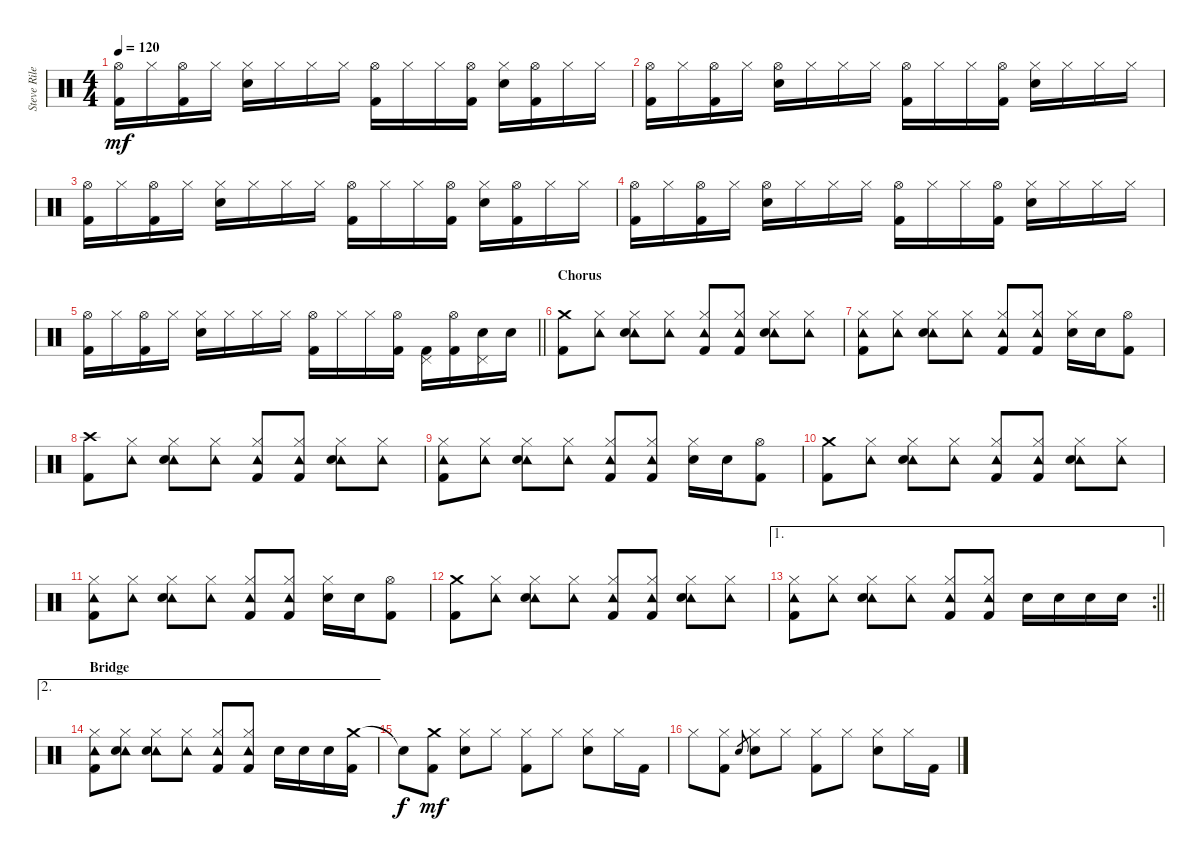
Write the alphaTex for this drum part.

\track ("Steve Riley" "Steve Rile") {instrument percussion}
\staff {score}
\articulation defaults
\ts (4 4)
\tempo 120
\clef neutral
\ks c
("Hi-Hat (open)" "Kick (hit) 2").16{dy mf} "Hi-Hat (closed)".16 ("Hi-Hat (open)" "Kick (hit) 2").16 "Hi-Hat (closed)".16 ("Hi-Hat (closed)" "Snare (hit) 2").16 "Hi-Hat (closed)".16 "Hi-Hat (closed)".16 "Hi-Hat (closed)".16 ("Hi-Hat (open)" "Kick (hit) 2").16 "Hi-Hat (closed)".16 "Hi-Hat (closed)".16 ("Hi-Hat (open)" "Kick (hit) 2").16 ("Hi-Hat (closed)" "Snare (hit) 2").16 ("Hi-Hat (open)" "Kick (hit) 2").16 "Hi-Hat (closed)".16 "Hi-Hat (closed)".16 |
("Hi-Hat (open)" "Kick (hit) 2").16 "Hi-Hat (closed)".16 ("Hi-Hat (open)" "Kick (hit) 2").16 "Hi-Hat (closed)".16 ("Hi-Hat (open)" "Snare (hit) 2").16 "Hi-Hat (closed)".16 "Hi-Hat (closed)".16 "Hi-Hat (closed)".16 ("Hi-Hat (open)" "Kick (hit) 2").16 "Hi-Hat (closed)".16 "Hi-Hat (closed)".16 ("Hi-Hat (open)" "Kick (hit) 2").16 ("Hi-Hat (closed)" "Snare (hit) 2").16 "Hi-Hat (closed)".16 "Hi-Hat (closed)".16 "Hi-Hat (closed)".16 |
("Hi-Hat (open)" "Kick (hit) 2").16 "Hi-Hat (closed)".16 ("Hi-Hat (open)" "Kick (hit) 2").16 "Hi-Hat (closed)".16 ("Hi-Hat (closed)" "Snare (hit) 2").16 "Hi-Hat (closed)".16 "Hi-Hat (closed)".16 "Hi-Hat (closed)".16 ("Hi-Hat (open)" "Kick (hit) 2").16 "Hi-Hat (closed)".16 "Hi-Hat (closed)".16 ("Hi-Hat (open)" "Kick (hit) 2").16 ("Hi-Hat (closed)" "Snare (hit) 2").16 ("Hi-Hat (open)" "Kick (hit) 2").16 "Hi-Hat (closed)".16 "Hi-Hat (closed)".16 |
("Hi-Hat (open)" "Kick (hit) 2").16 "Hi-Hat (closed)".16 ("Hi-Hat (open)" "Kick (hit) 2").16 "Hi-Hat (closed)".16 ("Hi-Hat (open)" "Snare (hit) 2").16 "Hi-Hat (closed)".16 "Hi-Hat (closed)".16 "Hi-Hat (closed)".16 ("Hi-Hat (open)" "Kick (hit) 2").16 "Hi-Hat (closed)".16 "Hi-Hat (closed)".16 ("Hi-Hat (open)" "Kick (hit) 2").16 ("Hi-Hat (closed)" "Snare (hit) 2").16 "Hi-Hat (closed)".16 "Hi-Hat (closed)".16 "Hi-Hat (closed)".16 |
\barLineRight lightlight
("Hi-Hat (open)" "Kick (hit) 2").16 "Hi-Hat (closed)".16 ("Hi-Hat (open)" "Kick (hit) 2").16 "Hi-Hat (closed)".16 ("Hi-Hat (closed)" "Snare (hit) 2").16 "Hi-Hat (closed)".16 "Hi-Hat (closed)".16 "Hi-Hat (closed)".16 ("Hi-Hat (open)" "Kick (hit) 2").16 "Hi-Hat (closed)".16 "Hi-Hat (closed)".16 ("Hi-Hat (open)" "Kick (hit) 2").16 ("Pedal Hi-Hat (hit)" "Kick (hit) 2").16 ("Hi-Hat (open)" "Kick (hit) 2").16 ("Pedal Hi-Hat (hit)" "Snare (hit) 2").16 "Snare (hit) 2".16 |
\section ("" "Chorus")
("Crash medium (hit)" "Kick (hit) 2").8 ("Tambourine (hit)" "Hi-Hat (closed)").8 ("Tambourine (hit)" "Hi-Hat (closed)" "Snare (hit) 2").8 ("Tambourine (hit)" "Hi-Hat (closed)").8 ("Tambourine (hit)" "Hi-Hat (closed)" "Kick (hit) 2").8 ("Tambourine (hit)" "Hi-Hat (closed)" "Kick (hit) 2").8 ("Tambourine (hit)" "Hi-Hat (closed)" "Snare (hit) 2").8 ("Tambourine (hit)" "Hi-Hat (closed)").8 |
("Tambourine (hit)" "Hi-Hat (closed)" "Kick (hit) 2").8 ("Tambourine (hit)" "Hi-Hat (closed)").8 ("Tambourine (hit)" "Hi-Hat (closed)" "Snare (hit) 2").8 ("Tambourine (hit)" "Hi-Hat (closed)").8 ("Tambourine (hit)" "Hi-Hat (closed)" "Kick (hit) 2").8 ("Tambourine (hit)" "Hi-Hat (closed)" "Kick (hit) 2").8 ("Hi-Hat (closed)" "Snare (hit) 2").16 "Snare (hit) 2".16 ("Hi-Hat (open)" "Kick (hit) 2").8 |
("Crash high (hit)" "Kick (hit) 2").8 ("Tambourine (hit)" "Hi-Hat (closed)").8 ("Tambourine (hit)" "Hi-Hat (closed)" "Snare (hit) 2").8 ("Tambourine (hit)" "Hi-Hat (closed)").8 ("Tambourine (hit)" "Hi-Hat (closed)" "Kick (hit) 2").8 ("Tambourine (hit)" "Hi-Hat (closed)" "Kick (hit) 2").8 ("Tambourine (hit)" "Hi-Hat (closed)" "Snare (hit) 2").8 ("Tambourine (hit)" "Hi-Hat (closed)").8 |
("Tambourine (hit)" "Hi-Hat (closed)" "Kick (hit) 2").8 ("Tambourine (hit)" "Hi-Hat (closed)").8 ("Tambourine (hit)" "Hi-Hat (closed)" "Snare (hit) 2").8 ("Tambourine (hit)" "Hi-Hat (closed)").8 ("Tambourine (hit)" "Hi-Hat (closed)" "Kick (hit) 2").8 ("Tambourine (hit)" "Hi-Hat (closed)" "Kick (hit) 2").8 ("Hi-Hat (closed)" "Snare (hit) 2").16 "Snare (hit) 2".16 ("Hi-Hat (open)" "Kick (hit) 2").8 |
("Crash medium (hit)" "Kick (hit) 2").8 ("Tambourine (hit)" "Hi-Hat (closed)").8 ("Tambourine (hit)" "Hi-Hat (closed)" "Snare (hit) 2").8 ("Tambourine (hit)" "Hi-Hat (closed)").8 ("Tambourine (hit)" "Hi-Hat (closed)" "Kick (hit) 2").8 ("Tambourine (hit)" "Hi-Hat (closed)" "Kick (hit) 2").8 ("Tambourine (hit)" "Hi-Hat (closed)" "Snare (hit) 2").8 ("Tambourine (hit)" "Hi-Hat (closed)").8 |
("Tambourine (hit)" "Hi-Hat (closed)" "Kick (hit) 2").8 ("Tambourine (hit)" "Hi-Hat (closed)").8 ("Tambourine (hit)" "Hi-Hat (closed)" "Snare (hit) 2").8 ("Tambourine (hit)" "Hi-Hat (closed)").8 ("Tambourine (hit)" "Hi-Hat (closed)" "Kick (hit) 2").8 ("Tambourine (hit)" "Hi-Hat (closed)" "Kick (hit) 2").8 ("Hi-Hat (closed)" "Snare (hit) 2").16 "Snare (hit) 2".16 ("Hi-Hat (open)" "Kick (hit) 2").8 |
("Crash medium (hit)" "Kick (hit) 2").8 ("Tambourine (hit)" "Hi-Hat (closed)").8 ("Tambourine (hit)" "Hi-Hat (closed)" "Snare (hit) 2").8 ("Tambourine (hit)" "Hi-Hat (closed)").8 ("Tambourine (hit)" "Hi-Hat (closed)" "Kick (hit) 2").8 ("Tambourine (hit)" "Hi-Hat (closed)" "Kick (hit) 2").8 ("Tambourine (hit)" "Hi-Hat (closed)" "Snare (hit) 2").8 ("Tambourine (hit)" "Hi-Hat (closed)").8 |
\ae 1
\rc 2
\barLineRight lightlight
("Tambourine (hit)" "Hi-Hat (closed)" "Kick (hit) 2").8 ("Tambourine (hit)" "Hi-Hat (closed)").8 ("Tambourine (hit)" "Hi-Hat (closed)" "Snare (hit) 2").8 ("Tambourine (hit)" "Hi-Hat (closed)").8 ("Tambourine (hit)" "Hi-Hat (closed)" "Kick (hit) 2").8 ("Tambourine (hit)" "Hi-Hat (closed)" "Kick (hit) 2").8 "Snare (hit) 2".16 "Snare (hit) 2".16 "Snare (hit) 2".16 "Snare (hit) 2".16 |
\ae 2
\section ("" "Bridge")
("Tambourine (hit)" "Hi-Hat (closed)" "Kick (hit) 2").8 ("Tambourine (hit)" "Hi-Hat (closed)" "Snare (hit) 2").8 ("Tambourine (hit)" "Hi-Hat (closed)" "Snare (hit) 2").8 ("Tambourine (hit)" "Hi-Hat (closed)").8 ("Tambourine (hit)" "Hi-Hat (closed)" "Kick (hit) 2").8 ("Tambourine (hit)" "Hi-Hat (closed)" "Kick (hit) 2").8 "Snare (hit) 2".16 "Snare (hit) 2".16 "Snare (hit) 2".16 ("Crash medium (hit)" "Kick (hit) 2").16 |
"Snare (hit)"{t}.8{dy f} ("Crash medium (hit)" "Kick (hit) 2").8{dy mf} ("Hi-Hat (closed)" "Snare (hit) 2").8 "Hi-Hat (closed)".8 ("Hi-Hat (closed)" "Kick (hit) 2").8 "Hi-Hat (closed)".8 ("Hi-Hat (closed)" "Snare (hit) 2").8 "Hi-Hat (closed)".16 "Kick (hit) 2".16 |
"Hi-Hat (closed)".8 ("Hi-Hat (closed)" "Kick (hit) 2").8 "Snare (hit) 2".8{gr} ("Hi-Hat (closed)" "Snare (hit) 2").8 "Hi-Hat (closed)".8 ("Hi-Hat (closed)" "Kick (hit) 2").8 "Hi-Hat (closed)".8 ("Hi-Hat (closed)" "Snare (hit) 2").8 "Hi-Hat (closed)".16 "Kick (hit) 2".16
